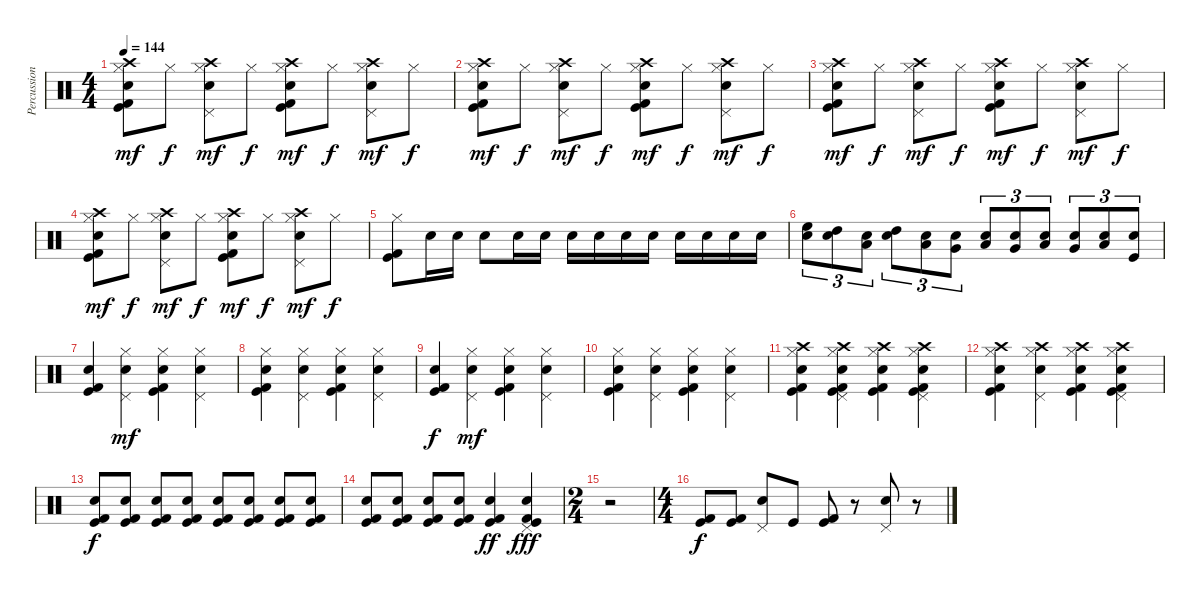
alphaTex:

\track ("Percussions" "Percussion") {instrument percussion}
\staff {score}
\articulation defaults
\ts (4 4)
\tempo 144
\clef neutral
\ks c
("Crash high (hit)" "Hi-Hat (closed)" "Snare (hit) 2" "Kick (hit)" "Kick (hit) 2").8{dy mf} "Hi-Hat (closed)".8{dy f} ("Crash high (hit)" "Pedal Hi-Hat (hit)" "Hi-Hat (closed)" "Snare (hit) 2").8{dy mf} "Hi-Hat (closed)".8{dy f} ("Crash high (hit)" "Hi-Hat (closed)" "Snare (hit) 2" "Kick (hit)" "Kick (hit) 2").8{dy mf} "Hi-Hat (closed)".8{dy f} ("Crash high (hit)" "Pedal Hi-Hat (hit)" "Hi-Hat (closed)" "Snare (hit) 2").8{dy mf} "Hi-Hat (closed)".8{dy f} |
("Crash high (hit)" "Hi-Hat (closed)" "Snare (hit) 2" "Kick (hit)" "Kick (hit) 2").8{dy mf} "Hi-Hat (closed)".8{dy f} ("Crash high (hit)" "Pedal Hi-Hat (hit)" "Hi-Hat (closed)" "Snare (hit) 2").8{dy mf} "Hi-Hat (closed)".8{dy f} ("Crash high (hit)" "Hi-Hat (closed)" "Snare (hit) 2" "Kick (hit)" "Kick (hit) 2").8{dy mf} "Hi-Hat (closed)".8{dy f} ("Crash high (hit)" "Pedal Hi-Hat (hit)" "Hi-Hat (closed)" "Snare (hit) 2").8{dy mf} "Hi-Hat (closed)".8{dy f} |
("Crash high (hit)" "Hi-Hat (closed)" "Snare (hit) 2" "Kick (hit)" "Kick (hit) 2").8{dy mf} "Hi-Hat (closed)".8{dy f} ("Crash high (hit)" "Pedal Hi-Hat (hit)" "Hi-Hat (closed)" "Snare (hit) 2").8{dy mf} "Hi-Hat (closed)".8{dy f} ("Crash high (hit)" "Hi-Hat (closed)" "Snare (hit) 2" "Kick (hit)" "Kick (hit) 2").8{dy mf} "Hi-Hat (closed)".8{dy f} ("Crash high (hit)" "Pedal Hi-Hat (hit)" "Hi-Hat (closed)" "Snare (hit) 2").8{dy mf} "Hi-Hat (closed)".8{dy f} |
("Crash high (hit)" "Hi-Hat (closed)" "Snare (hit) 2" "Kick (hit)" "Kick (hit) 2").8{dy mf} "Hi-Hat (closed)".8{dy f} ("Crash high (hit)" "Pedal Hi-Hat (hit)" "Hi-Hat (closed)" "Snare (hit) 2").8{dy mf} "Hi-Hat (closed)".8{dy f} ("Crash high (hit)" "Hi-Hat (closed)" "Snare (hit) 2" "Kick (hit)" "Kick (hit) 2").8{dy mf} "Hi-Hat (closed)".8{dy f} ("Crash high (hit)" "Pedal Hi-Hat (hit)" "Hi-Hat (closed)" "Snare (hit) 2").8{dy mf} "Hi-Hat (closed)".8{dy f} |
("Hi-Hat (closed)" "Kick (hit)" "Kick (hit) 2").8 "Electric Snare (hit)".16 "Electric Snare (hit)".16 "Electric Snare (hit)".8 "Electric Snare (hit)".16 "Electric Snare (hit)".16 "Electric Snare (hit)".16 "Electric Snare (hit)".16 "Electric Snare (hit)".16 "Electric Snare (hit)".16 "Electric Snare (hit)".16 "Electric Snare (hit)".16 "Electric Snare (hit)".16 "Electric Snare (hit)".16 |
("High Floor Tom (hit)" "Electric Snare (hit)").8{tu (3 2)} ("High Tom (hit)" "Electric Snare (hit)").8{tu (3 2)} ("Low Tom (hit)" "Electric Snare (hit)").8{tu (3 2)} ("High Tom (hit)" "Electric Snare (hit)").8{tu (3 2)} ("Low Tom (hit)" "Electric Snare (hit)").8{tu (3 2)} ("Very Low Tom (hit)" "Electric Snare (hit)").8{tu (3 2)} ("Low Tom (hit)" "Electric Snare (hit)").8{tu (3 2)} ("Very Low Tom (hit)" "Electric Snare (hit)").8{tu (3 2)} ("Low Floor Tom (hit)" "Electric Snare (hit)").8{tu (3 2)} ("Very Low Tom (hit)" "Electric Snare (hit)").8{tu (3 2)} ("Low Floor Tom (hit)" "Electric Snare (hit)").8{tu (3 2)} ("Electric Snare (hit)" "Kick (hit)").8{tu (3 2)} |
("Snare (hit) 2" "Kick (hit)" "Kick (hit) 2").4 ("Pedal Hi-Hat (hit)" "Hi-Hat (closed)" "Snare (hit) 2").4{dy mf} ("Hi-Hat (closed)" "Snare (hit) 2" "Kick (hit)" "Kick (hit) 2").4 ("Pedal Hi-Hat (hit)" "Hi-Hat (closed)" "Snare (hit) 2").4 |
("Hi-Hat (closed)" "Snare (hit) 2" "Kick (hit)" "Kick (hit) 2").4 ("Pedal Hi-Hat (hit)" "Hi-Hat (closed)" "Snare (hit) 2").4 ("Hi-Hat (closed)" "Snare (hit) 2" "Kick (hit)" "Kick (hit) 2").4 ("Pedal Hi-Hat (hit)" "Hi-Hat (closed)" "Snare (hit) 2").4 |
("Snare (hit) 2" "Kick (hit)" "Kick (hit) 2").4{dy f} ("Pedal Hi-Hat (hit)" "Hi-Hat (closed)" "Snare (hit) 2").4{dy mf} ("Hi-Hat (closed)" "Snare (hit) 2" "Kick (hit)" "Kick (hit) 2").4 ("Pedal Hi-Hat (hit)" "Hi-Hat (closed)" "Snare (hit) 2").4 |
("Hi-Hat (closed)" "Snare (hit) 2" "Kick (hit)" "Kick (hit) 2").4 ("Pedal Hi-Hat (hit)" "Hi-Hat (closed)" "Snare (hit) 2").4 ("Hi-Hat (closed)" "Snare (hit) 2" "Kick (hit)" "Kick (hit) 2").4 ("Pedal Hi-Hat (hit)" "Hi-Hat (closed)" "Snare (hit) 2").4 |
("Crash high (hit)" "Hi-Hat (closed)" "Snare (hit) 2" "Kick (hit)" "Kick (hit) 2").4 ("Crash high (hit)" "Pedal Hi-Hat (hit)" "Hi-Hat (closed)" "Snare (hit) 2" "Kick (hit)" "Kick (hit) 2").4 ("Crash high (hit)" "Hi-Hat (closed)" "Snare (hit) 2" "Kick (hit)" "Kick (hit) 2").4 ("Crash high (hit)" "Pedal Hi-Hat (hit)" "Hi-Hat (closed)" "Snare (hit) 2" "Kick (hit)" "Kick (hit) 2").4 |
("Crash high (hit)" "Hi-Hat (closed)" "Snare (hit) 2" "Kick (hit)" "Kick (hit) 2").4 ("Crash high (hit)" "Pedal Hi-Hat (hit)" "Hi-Hat (closed)" "Snare (hit) 2").4 ("Crash high (hit)" "Hi-Hat (closed)" "Snare (hit) 2" "Kick (hit)" "Kick (hit) 2").4 ("Crash high (hit)" "Pedal Hi-Hat (hit)" "Hi-Hat (closed)" "Snare (hit) 2" "Kick (hit)" "Kick (hit) 2").4 |
("Electric Snare (hit)" "Kick (hit)" "Kick (hit) 2").8{dy f volume 2} ("Electric Snare (hit)" "Kick (hit)" "Kick (hit) 2").8 ("Electric Snare (hit)" "Kick (hit)" "Kick (hit) 2").8{volume 5} ("Electric Snare (hit)" "Kick (hit)" "Kick (hit) 2").8 ("Electric Snare (hit)" "Kick (hit)" "Kick (hit) 2").8{volume 6} ("Electric Snare (hit)" "Kick (hit)" "Kick (hit) 2").8 ("Electric Snare (hit)" "Kick (hit)" "Kick (hit) 2").8{volume 8} ("Electric Snare (hit)" "Kick (hit)" "Kick (hit) 2").8 |
("Electric Snare (hit)" "Kick (hit)" "Kick (hit) 2").8{volume 11} ("Electric Snare (hit)" "Kick (hit)" "Kick (hit) 2").8 ("Electric Snare (hit)" "Kick (hit)" "Kick (hit) 2").8{volume 13} ("Electric Snare (hit)" "Kick (hit)" "Kick (hit) 2").8 ("Electric Snare (hit)" "Kick (hit)" "Kick (hit) 2").4{dy ff} ("Pedal Hi-Hat (hit)" "Electric Snare (hit)" "Kick (hit)" "Kick (hit) 2").4{dy fff} |
\ts (2 4)
r.2 |
\ts (4 4)
("Kick (hit)" "Kick (hit) 2").8{dy f} ("Kick (hit)" "Kick (hit) 2").8 ("Pedal Hi-Hat (hit)" "Snare (hit) 2").8 "Kick (hit)".8 ("Kick (hit)" "Kick (hit) 2").8 r.8 ("Pedal Hi-Hat (hit)" "Snare (hit) 2").8 r.8
